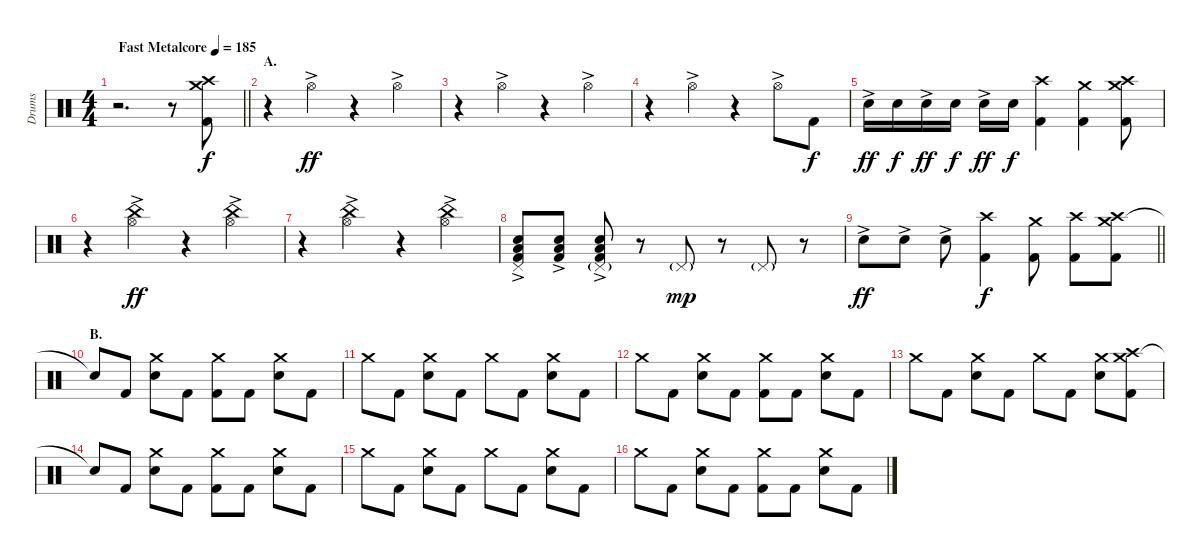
\track ("Drums" "Drums") {instrument percussion}
\staff {score}
\articulation defaults
\ts (4 4)
\tempo (185 "Fast Metalcore")
\clef neutral
\barLineRight lightlight
\ks c
r.2{d dy f} r.8 ("Crash medium (hit)" "Crash high (hit)" "Kick (hit) 2").8 |
\section ("" "A.")
r.4 "Hi-Hat (open)"{ac}.4{dy ff} r.4 "Hi-Hat (open)"{ac}.4 |
r.4 "Hi-Hat (open)"{ac}.4 r.4 "Hi-Hat (open)"{ac}.4 |
r.4 "Hi-Hat (open)"{ac}.4 r.4 "Hi-Hat (open)"{ac}.8 "Kick (hit) 2".8{dy f} |
"Electric Snare (hit)"{ac}.16{dy ff} "Electric Snare (hit)".16{dy f} "Electric Snare (hit)"{ac}.16{dy ff} "Electric Snare (hit)".16{dy f} "Electric Snare (hit)"{ac}.16{dy ff} "Electric Snare (hit)".16{dy f} ("Crash high (hit)" "Kick (hit) 2").4 ("Crash medium (hit)" "Kick (hit) 2").4 ("Crash medium (hit)" "Crash high (hit)" "Kick (hit) 2").8 |
r.4 ("China (hit)" "Hi-Hat (open)"{ac}).4{dy ff} r.4 ("China (hit)" "Hi-Hat (open)"{ac}).4 |
r.4 ("China (hit)" "Hi-Hat (open)"{ac}).4 r.4 ("China (hit)" "Hi-Hat (open)"{ac}).4 |
("Pedal Hi-Hat (hit)" "Electric Snare (hit)" "Low Floor Tom (hit)"{ac} "Kick (hit) 2").8 ("Electric Snare (hit)" "Low Floor Tom (hit)"{ac} "Kick (hit) 2").8 ("Pedal Hi-Hat (hit)"{g} "Electric Snare (hit)" "Low Floor Tom (hit)"{ac} "Kick (hit) 2").8 r.8 "Pedal Hi-Hat (hit)"{g}.8{dy mp} r.8 "Pedal Hi-Hat (hit)"{g}.8 r.8 |
\barLineRight lightlight "Electric Snare (hit)"{ac}.8{dy ff} "Electric Snare (hit)"{ac}.8 "Electric Snare (hit)"{ac}.8
("Crash high (hit)" "Kick (hit) 2").4{dy f} ("Crash medium (hit)" "Kick (hit) 2").8 ("Crash high (hit)" "Kick (hit) 2").8 ("Crash medium (hit)" "Crash high (hit)" "Kick (hit) 2").8 |
\section ("" "B.")
"Snare (hit)"{t}.8 "Kick (hit) 2".8 ("Crash medium (hit)" "Electric Snare (hit)").8 "Kick (hit) 2".8 ("Crash medium (hit)" "Kick (hit) 2").8 "Kick (hit) 2".8 ("Crash medium (hit)" "Electric Snare (hit)").8 "Kick (hit) 2".8 |
"Crash medium (hit)".8 "Kick (hit) 2".8 ("Crash medium (hit)" "Electric Snare (hit)").8 "Kick (hit) 2".8 "Crash medium (hit)".8 "Kick (hit) 2".8 ("Crash medium (hit)" "Electric Snare (hit)").8 "Kick (hit) 2".8 |
"Crash medium (hit)".8 "Kick (hit) 2".8 ("Crash medium (hit)" "Electric Snare (hit)").8 "Kick (hit) 2".8 ("Crash medium (hit)" "Kick (hit) 2").8 "Kick (hit) 2".8 ("Crash medium (hit)" "Electric Snare (hit)").8 "Kick (hit) 2".8 |
"Crash medium (hit)".8 "Kick (hit) 2".8 ("Crash medium (hit)" "Electric Snare (hit)").8 "Kick (hit) 2".8 "Crash medium (hit)".8 "Kick (hit) 2".8 ("Crash medium (hit)" "Electric Snare (hit)").8 ("Crash medium (hit)" "Crash high (hit)" "Kick (hit) 2").8 |
"Snare (hit)"{t}.8 "Kick (hit) 2".8 ("Crash medium (hit)" "Electric Snare (hit)").8 "Kick (hit) 2".8 ("Crash medium (hit)" "Kick (hit) 2").8 "Kick (hit) 2".8 ("Crash medium (hit)" "Electric Snare (hit)").8 "Kick (hit) 2".8 |
"Crash medium (hit)".8 "Kick (hit) 2".8 ("Crash medium (hit)" "Electric Snare (hit)").8 "Kick (hit) 2".8 "Crash medium (hit)".8 "Kick (hit) 2".8 ("Crash medium (hit)" "Electric Snare (hit)").8 "Kick (hit) 2".8 |
"Crash medium (hit)".8 "Kick (hit) 2".8 ("Crash medium (hit)" "Electric Snare (hit)").8 "Kick (hit) 2".8 ("Crash medium (hit)" "Kick (hit) 2").8 "Kick (hit) 2".8 ("Crash medium (hit)" "Electric Snare (hit)").8 "Kick (hit) 2".8
